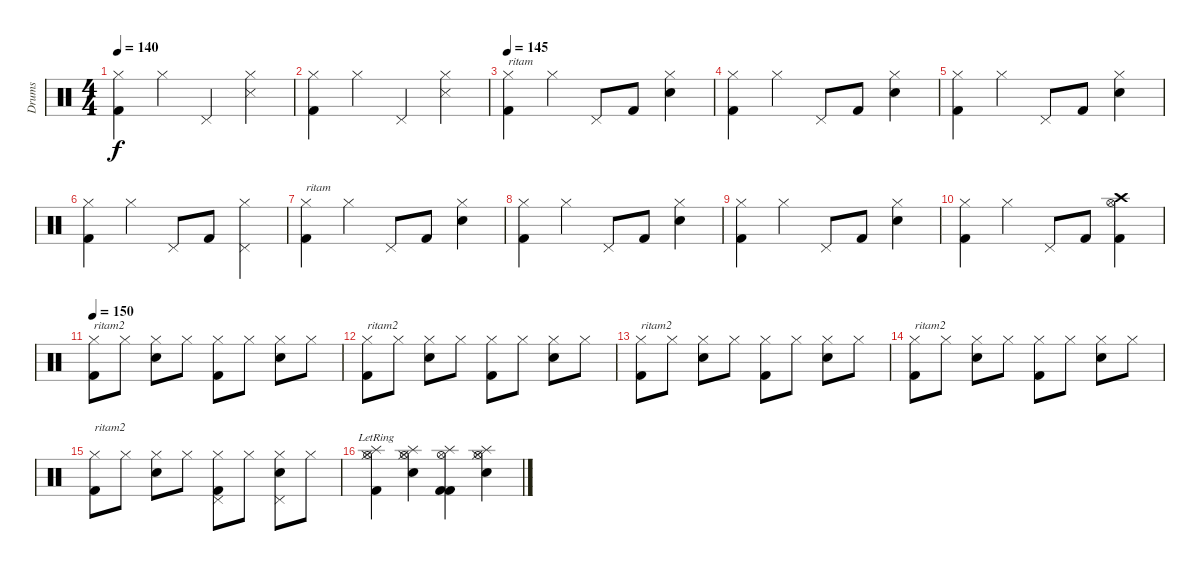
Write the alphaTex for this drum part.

\track ("Drums" "Drums") {instrument percussion}
\staff {score}
\articulation defaults
\ts (4 4)
\tempo 140
\clef neutral
\ks c
("Kick (hit) 2" "Hi-Hat (closed)").4{dy f} "Hi-Hat (closed)".4 "Pedal Hi-Hat (hit)".4 ("Hi-Hat (closed)" "Snare (side stick) 3").4 |
("Kick (hit) 2" "Hi-Hat (closed)").4 "Hi-Hat (closed)".4 "Pedal Hi-Hat (hit)".4 ("Hi-Hat (closed)" "Snare (side stick) 3").4 |
\tempo 145
("Kick (hit) 2" "Hi-Hat (closed)").4{txt "ritam"} "Hi-Hat (closed)".4 "Pedal Hi-Hat (hit)".8 "Kick (hit) 2".8 ("Snare (hit) 2" "Hi-Hat (closed)").4 |
("Kick (hit) 2" "Hi-Hat (closed)").4 "Hi-Hat (closed)".4 "Pedal Hi-Hat (hit)".8 "Kick (hit) 2".8 ("Snare (hit) 2" "Hi-Hat (closed)").4 |
("Kick (hit) 2" "Hi-Hat (closed)").4 "Hi-Hat (closed)".4 "Pedal Hi-Hat (hit)".8 "Kick (hit) 2".8 ("Snare (hit) 2" "Hi-Hat (closed)").4 |
("Kick (hit) 2" "Hi-Hat (closed)").4 "Hi-Hat (closed)".4 "Pedal Hi-Hat (hit)".8 "Kick (hit) 2".8 ("Pedal Hi-Hat (hit)" "Hi-Hat (closed)").4 |
("Kick (hit) 2" "Hi-Hat (closed)").4{txt "ritam"} "Hi-Hat (closed)".4 "Pedal Hi-Hat (hit)".8 "Kick (hit) 2".8 ("Snare (hit) 2" "Hi-Hat (closed)").4 |
("Kick (hit) 2" "Hi-Hat (closed)").4 "Hi-Hat (closed)".4 "Pedal Hi-Hat (hit)".8 "Kick (hit) 2".8 ("Snare (hit) 2" "Hi-Hat (closed)").4 |
("Kick (hit) 2" "Hi-Hat (closed)").4 "Hi-Hat (closed)".4 "Pedal Hi-Hat (hit)".8 "Kick (hit) 2".8 ("Snare (hit) 2" "Hi-Hat (closed)").4 |
("Kick (hit) 2" "Hi-Hat (closed)").4 "Hi-Hat (closed)".4 "Pedal Hi-Hat (hit)".8 "Kick (hit) 2".8 ("Hi-Hat (open)" "Crash high (hit)" "Kick (hit) 2").4 |
\tempo 150
("Kick (hit) 2" "Hi-Hat (closed)").8{txt "ritam2"} "Hi-Hat (closed)".8 ("Snare (hit) 2" "Hi-Hat (closed)").8 "Hi-Hat (closed)".8 ("Kick (hit) 2" "Hi-Hat (closed)").8 "Hi-Hat (closed)".8 ("Snare (hit) 2" "Hi-Hat (closed)").8 "Hi-Hat (closed)".8 |
("Kick (hit) 2" "Hi-Hat (closed)").8{txt "ritam2"} "Hi-Hat (closed)".8 ("Snare (hit) 2" "Hi-Hat (closed)").8 "Hi-Hat (closed)".8 ("Kick (hit) 2" "Hi-Hat (closed)").8 "Hi-Hat (closed)".8 ("Snare (hit) 2" "Hi-Hat (closed)").8 "Hi-Hat (closed)".8 |
("Kick (hit) 2" "Hi-Hat (closed)").8{txt "ritam2"} "Hi-Hat (closed)".8 ("Snare (hit) 2" "Hi-Hat (closed)").8 "Hi-Hat (closed)".8 ("Kick (hit) 2" "Hi-Hat (closed)").8 "Hi-Hat (closed)".8 ("Snare (hit) 2" "Hi-Hat (closed)").8 "Hi-Hat (closed)".8 |
("Kick (hit) 2" "Hi-Hat (closed)").8{txt "ritam2"} "Hi-Hat (closed)".8 ("Snare (hit) 2" "Hi-Hat (closed)").8 "Hi-Hat (closed)".8 ("Kick (hit) 2" "Hi-Hat (closed)").8 "Hi-Hat (closed)".8 ("Snare (hit) 2" "Hi-Hat (closed)").8 "Hi-Hat (closed)".8 |
("Kick (hit) 2" "Hi-Hat (closed)").8{txt "ritam2"} "Hi-Hat (closed)".8 ("Snare (hit) 2" "Hi-Hat (closed)").8 "Hi-Hat (closed)".8 ("Kick (hit) 2" "Hi-Hat (closed)" "Pedal Hi-Hat (hit)").8 "Hi-Hat (closed)".8 ("Snare (hit) 2" "Hi-Hat (closed)" "Pedal Hi-Hat (hit)").8 "Hi-Hat (closed)".8 |
("Kick (hit) 2" "Hi-Hat (closed)" "Splash (hit)"{lr} "Hi-Hat (open)").4 ("Snare (hit) 2" "Hi-Hat (closed)" "Splash (hit)" "Hi-Hat (open)").4 ("Kick (hit) 2" "Kick (hit) 2" "Splash (hit)" "Hi-Hat (open)").4 ("Snare (hit) 2" "Hi-Hat (closed)" "Splash (hit)" "Hi-Hat (open)").4
